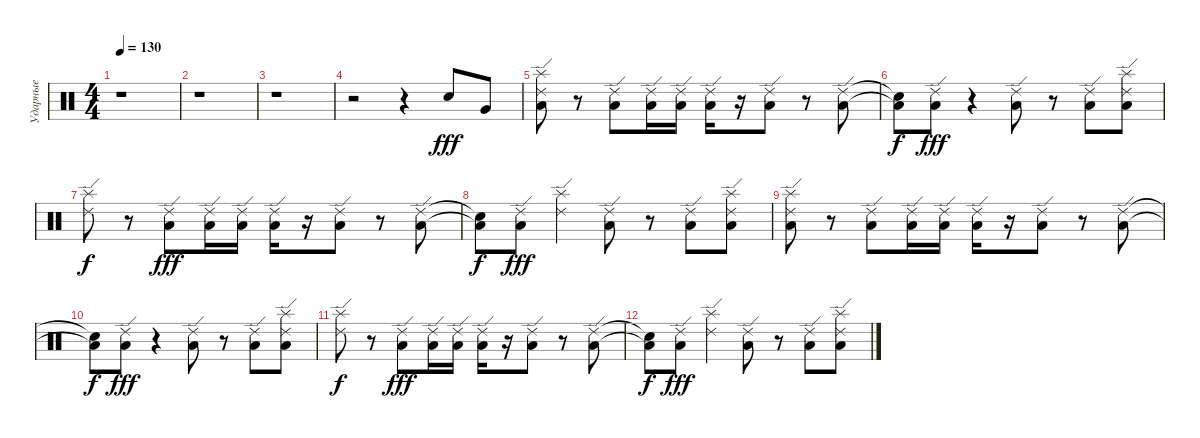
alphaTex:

\track ("Ударные" "Ударные") {instrument percussion}
\staff {score}
\articulation defaults
\ts (4 4)
\tempo 130
\clef neutral
\ks c
r.1{dy fff} |
r.1 |
r.1 |
r.2 r.4 "Snare (hit) 2".8 "Very Low Tom (hit)".8 |
("Low Tom (hit)" "Splash (hit)" "Ride (edge) 2").8 r.8 ("Low Tom (hit)" "Ride (edge) 2").8 ("Low Tom (hit)" "Ride (edge) 2").16 ("Low Tom (hit)" "Ride (edge) 2").16 ("Low Tom (hit)" "Ride (edge) 2").16 r.16 ("Low Tom (hit)" "Ride (edge) 2").8 r.8 ("Low Tom (hit)" "Ride (edge) 2").8 |
("Low Tom (hit)"{t} "Snare (hit)"{t}).8{dy f} ("Low Tom (hit)" "Ride (edge) 2").8{dy fff} r.4 ("Low Tom (hit)" "Ride (edge) 2").8 r.8 ("Low Tom (hit)" "Ride (edge) 2").8 ("Low Tom (hit)" "Splash (hit)" "Ride (edge) 2").8 |
("Splash (hit)" "Ride (edge) 2").8{dy f} r.8 ("Low Tom (hit)" "Ride (edge) 2").8{dy fff} ("Low Tom (hit)" "Ride (edge) 2").16 ("Low Tom (hit)" "Ride (edge) 2").16 ("Low Tom (hit)" "Ride (edge) 2").16 r.16 ("Low Tom (hit)" "Ride (edge) 2").8 r.8 ("Low Tom (hit)" "Ride (edge) 2").8 |
("Low Tom (hit)"{t} "Snare (hit)"{t}).8{dy f} ("Low Tom (hit)" "Ride (edge) 2").8{dy fff} ("Splash (hit)" "Ride (edge) 2").4 ("Low Tom (hit)" "Ride (edge) 2").8 r.8 ("Low Tom (hit)" "Ride (edge) 2").8 ("Low Tom (hit)" "Splash (hit)" "Ride (edge) 2").8 |
("Low Tom (hit)" "Splash (hit)" "Ride (edge) 2").8 r.8 ("Low Tom (hit)" "Ride (edge) 2").8 ("Low Tom (hit)" "Ride (edge) 2").16 ("Low Tom (hit)" "Ride (edge) 2").16 ("Low Tom (hit)" "Ride (edge) 2").16 r.16 ("Low Tom (hit)" "Ride (edge) 2").8 r.8 ("Low Tom (hit)" "Ride (edge) 2").8 |
("Low Tom (hit)"{t} "Snare (hit)"{t}).8{dy f} ("Low Tom (hit)" "Ride (edge) 2").8{dy fff} r.4 ("Low Tom (hit)" "Ride (edge) 2").8 r.8 ("Low Tom (hit)" "Ride (edge) 2").8 ("Low Tom (hit)" "Splash (hit)" "Ride (edge) 2").8 |
("Splash (hit)" "Ride (edge) 2").8{dy f} r.8 ("Low Tom (hit)" "Ride (edge) 2").8{dy fff} ("Low Tom (hit)" "Ride (edge) 2").16 ("Low Tom (hit)" "Ride (edge) 2").16 ("Low Tom (hit)" "Ride (edge) 2").16 r.16 ("Low Tom (hit)" "Ride (edge) 2").8 r.8 ("Low Tom (hit)" "Ride (edge) 2").8 |
("Low Tom (hit)"{t} "Snare (hit)"{t}).8{dy f} ("Low Tom (hit)" "Ride (edge) 2").8{dy fff} ("Splash (hit)" "Ride (edge) 2").4 ("Low Tom (hit)" "Ride (edge) 2").8 r.8 ("Low Tom (hit)" "Ride (edge) 2").8 ("Low Tom (hit)" "Splash (hit)" "Ride (edge) 2").8
